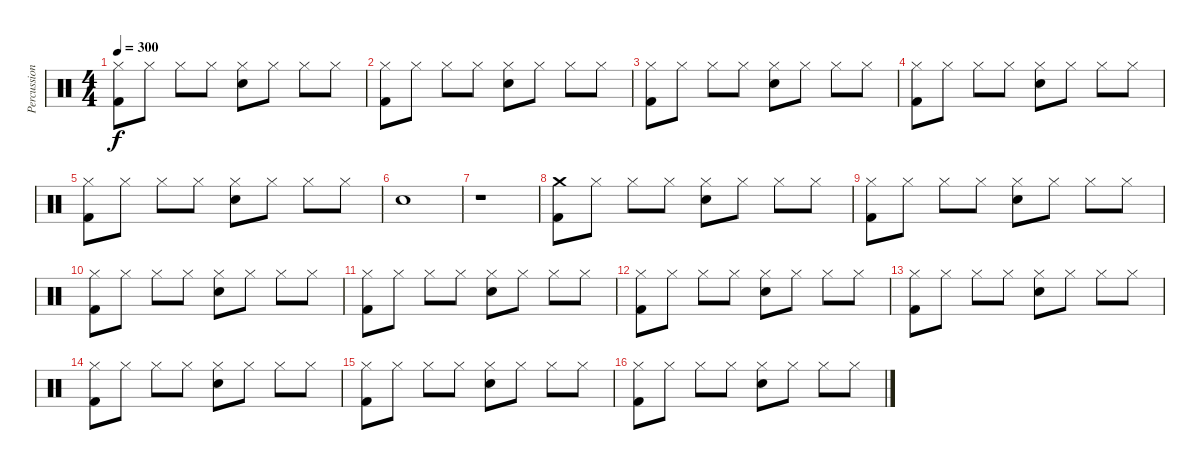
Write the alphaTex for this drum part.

\track ("Percussion" "Percussion") {instrument percussion}
\staff {score}
\articulation defaults
\ts (4 4)
\tempo 300
\clef neutral
\ks c
("Kick (hit) 2" "Hi-Hat (closed)").8{dy f} "Hi-Hat (closed)".8 "Hi-Hat (closed)".8 "Hi-Hat (closed)".8 ("Snare (hit) 2" "Hi-Hat (closed)").8 "Hi-Hat (closed)".8 "Hi-Hat (closed)".8 "Hi-Hat (closed)".8 |
("Kick (hit) 2" "Hi-Hat (closed)").8 "Hi-Hat (closed)".8 "Hi-Hat (closed)".8 "Hi-Hat (closed)".8 ("Snare (hit) 2" "Hi-Hat (closed)").8 "Hi-Hat (closed)".8 "Hi-Hat (closed)".8 "Hi-Hat (closed)".8 |
("Kick (hit) 2" "Hi-Hat (closed)").8 "Hi-Hat (closed)".8 "Hi-Hat (closed)".8 "Hi-Hat (closed)".8 ("Snare (hit) 2" "Hi-Hat (closed)").8 "Hi-Hat (closed)".8 "Hi-Hat (closed)".8 "Hi-Hat (closed)".8 |
("Kick (hit) 2" "Hi-Hat (closed)").8 "Hi-Hat (closed)".8 "Hi-Hat (closed)".8 "Hi-Hat (closed)".8 ("Snare (hit) 2" "Hi-Hat (closed)").8 "Hi-Hat (closed)".8 "Hi-Hat (closed)".8 "Hi-Hat (closed)".8 |
("Kick (hit) 2" "Hi-Hat (closed)").8 "Hi-Hat (closed)".8 "Hi-Hat (closed)".8 "Hi-Hat (closed)".8 ("Snare (hit) 2" "Hi-Hat (closed)").8 "Hi-Hat (closed)".8 "Hi-Hat (closed)".8 "Hi-Hat (closed)".8 |
"Snare (hit) 2".1 |
r.1 |
("Crash medium (hit)" "Kick (hit) 2").8 "Hi-Hat (closed)".8 "Hi-Hat (closed)".8 "Hi-Hat (closed)".8 ("Snare (hit) 2" "Hi-Hat (closed)").8 "Hi-Hat (closed)".8 "Hi-Hat (closed)".8 "Hi-Hat (closed)".8 |
("Kick (hit) 2" "Hi-Hat (closed)").8 "Hi-Hat (closed)".8 "Hi-Hat (closed)".8 "Hi-Hat (closed)".8 ("Snare (hit) 2" "Hi-Hat (closed)").8 "Hi-Hat (closed)".8 "Hi-Hat (closed)".8 "Hi-Hat (closed)".8 |
("Kick (hit) 2" "Hi-Hat (closed)").8 "Hi-Hat (closed)".8 "Hi-Hat (closed)".8 "Hi-Hat (closed)".8 ("Snare (hit) 2" "Hi-Hat (closed)").8 "Hi-Hat (closed)".8 "Hi-Hat (closed)".8 "Hi-Hat (closed)".8 |
("Kick (hit) 2" "Hi-Hat (closed)").8 "Hi-Hat (closed)".8 "Hi-Hat (closed)".8 "Hi-Hat (closed)".8 ("Snare (hit) 2" "Hi-Hat (closed)").8 "Hi-Hat (closed)".8 "Hi-Hat (closed)".8 "Hi-Hat (closed)".8 |
("Kick (hit) 2" "Hi-Hat (closed)").8 "Hi-Hat (closed)".8 "Hi-Hat (closed)".8 "Hi-Hat (closed)".8 ("Snare (hit) 2" "Hi-Hat (closed)").8 "Hi-Hat (closed)".8 "Hi-Hat (closed)".8 "Hi-Hat (closed)".8 |
("Kick (hit) 2" "Hi-Hat (closed)").8 "Hi-Hat (closed)".8 "Hi-Hat (closed)".8 "Hi-Hat (closed)".8 ("Snare (hit) 2" "Hi-Hat (closed)").8 "Hi-Hat (closed)".8 "Hi-Hat (closed)".8 "Hi-Hat (closed)".8 |
("Kick (hit) 2" "Hi-Hat (closed)").8 "Hi-Hat (closed)".8 "Hi-Hat (closed)".8 "Hi-Hat (closed)".8 ("Snare (hit) 2" "Hi-Hat (closed)").8 "Hi-Hat (closed)".8 "Hi-Hat (closed)".8 "Hi-Hat (closed)".8 |
("Kick (hit) 2" "Hi-Hat (closed)").8 "Hi-Hat (closed)".8 "Hi-Hat (closed)".8 "Hi-Hat (closed)".8 ("Snare (hit) 2" "Hi-Hat (closed)").8 "Hi-Hat (closed)".8 "Hi-Hat (closed)".8 "Hi-Hat (closed)".8 |
("Kick (hit) 2" "Hi-Hat (closed)").8 "Hi-Hat (closed)".8 "Hi-Hat (closed)".8 "Hi-Hat (closed)".8 ("Snare (hit) 2" "Hi-Hat (closed)").8 "Hi-Hat (closed)".8 "Hi-Hat (closed)".8 "Hi-Hat (closed)".8
